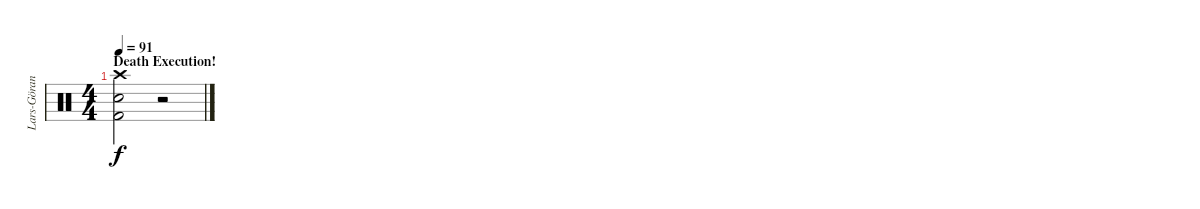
\track ("Lars-Göran Petrov" "Lars-Göran") {instrument percussion}
\staff {score}
\articulation defaults
\ts (4 4)
\section ("" "Death Execution!")
\tempo 91
\clef neutral
\ks c
("Crash high (hit)" "Electric Snare (hit)" "Kick (hit) 2").2{dy f} r.2
